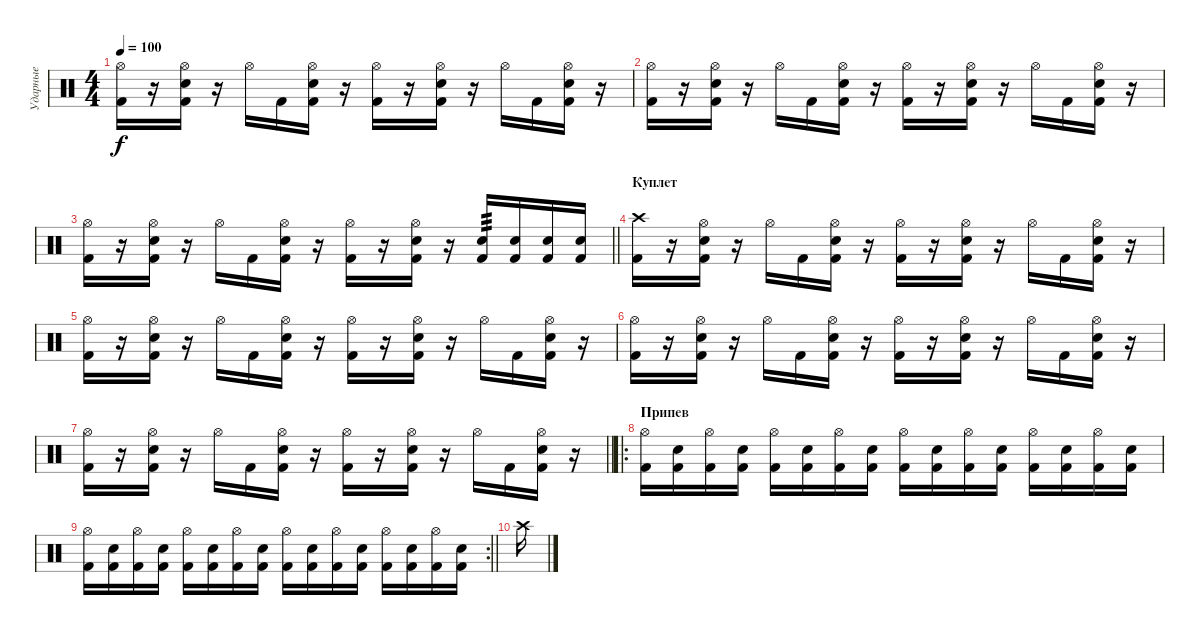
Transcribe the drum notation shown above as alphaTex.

\track ("Ударные" "Ударные") {instrument percussion}
\staff {score}
\articulation defaults
\ts (4 4)
\tempo 100
\clef neutral
\ks c
("Kick (hit) 2" "Hi-Hat (open)").16{dy f} r.16 ("Kick (hit) 2" "Electric Snare (hit)" "Hi-Hat (open)").16 r.16 "Hi-Hat (open)".16 "Kick (hit) 2".16 ("Kick (hit) 2" "Electric Snare (hit)" "Hi-Hat (open)").16 r.16 ("Kick (hit) 2" "Hi-Hat (open)").16 r.16 ("Kick (hit) 2" "Electric Snare (hit)" "Hi-Hat (open)").16 r.16 "Hi-Hat (open)".16 "Kick (hit) 2".16 ("Kick (hit) 2" "Electric Snare (hit)" "Hi-Hat (open)").16 r.16 |
("Kick (hit) 2" "Hi-Hat (open)").16 r.16 ("Kick (hit) 2" "Electric Snare (hit)" "Hi-Hat (open)").16 r.16 "Hi-Hat (open)".16 "Kick (hit) 2".16 ("Kick (hit) 2" "Electric Snare (hit)" "Hi-Hat (open)").16 r.16 ("Kick (hit) 2" "Hi-Hat (open)").16 r.16 ("Kick (hit) 2" "Electric Snare (hit)" "Hi-Hat (open)").16 r.16 "Hi-Hat (open)".16 "Kick (hit) 2".16 ("Kick (hit) 2" "Electric Snare (hit)" "Hi-Hat (open)").16 r.16 |
\barLineRight lightlight
("Kick (hit) 2" "Hi-Hat (open)").16 r.16 ("Kick (hit) 2" "Electric Snare (hit)" "Hi-Hat (open)").16 r.16 "Hi-Hat (open)".16 "Kick (hit) 2".16 ("Kick (hit) 2" "Electric Snare (hit)" "Hi-Hat (open)").16 r.16 ("Kick (hit) 2" "Hi-Hat (open)").16 r.16 ("Kick (hit) 2" "Electric Snare (hit)" "Hi-Hat (open)").16 r.16 ("Kick (hit) 2" "Electric Snare (hit)").16{tp 3} ("Kick (hit) 2" "Electric Snare (hit)").16 ("Kick (hit) 2" "Electric Snare (hit)").16 ("Kick (hit) 2" "Electric Snare (hit)").16 |
\section ("" "Куплет")
("Kick (hit) 2" "Crash high (hit)").16 r.16 ("Kick (hit) 2" "Electric Snare (hit)" "Hi-Hat (open)").16 r.16 "Hi-Hat (open)".16 "Kick (hit) 2".16 ("Kick (hit) 2" "Electric Snare (hit)" "Hi-Hat (open)").16 r.16 ("Kick (hit) 2" "Hi-Hat (open)").16 r.16 ("Kick (hit) 2" "Electric Snare (hit)" "Hi-Hat (open)").16 r.16 "Hi-Hat (open)".16 "Kick (hit) 2".16 ("Kick (hit) 2" "Electric Snare (hit)" "Hi-Hat (open)").16 r.16 |
("Kick (hit) 2" "Hi-Hat (open)").16 r.16 ("Kick (hit) 2" "Electric Snare (hit)" "Hi-Hat (open)").16 r.16 "Hi-Hat (open)".16 "Kick (hit) 2".16 ("Kick (hit) 2" "Electric Snare (hit)" "Hi-Hat (open)").16 r.16 ("Kick (hit) 2" "Hi-Hat (open)").16 r.16 ("Kick (hit) 2" "Electric Snare (hit)" "Hi-Hat (open)").16 r.16 "Hi-Hat (open)".16 "Kick (hit) 2".16 ("Kick (hit) 2" "Electric Snare (hit)" "Hi-Hat (open)").16 r.16 |
("Kick (hit) 2" "Hi-Hat (open)").16 r.16 ("Kick (hit) 2" "Electric Snare (hit)" "Hi-Hat (open)").16 r.16 "Hi-Hat (open)".16 "Kick (hit) 2".16 ("Kick (hit) 2" "Electric Snare (hit)" "Hi-Hat (open)").16 r.16 ("Kick (hit) 2" "Hi-Hat (open)").16 r.16 ("Kick (hit) 2" "Electric Snare (hit)" "Hi-Hat (open)").16 r.16 "Hi-Hat (open)".16 "Kick (hit) 2".16 ("Kick (hit) 2" "Electric Snare (hit)" "Hi-Hat (open)").16 r.16 |
\barLineRight lightlight
("Kick (hit) 2" "Hi-Hat (open)").16 r.16 ("Kick (hit) 2" "Electric Snare (hit)" "Hi-Hat (open)").16 r.16 "Hi-Hat (open)".16 "Kick (hit) 2".16 ("Kick (hit) 2" "Electric Snare (hit)" "Hi-Hat (open)").16 r.16 ("Kick (hit) 2" "Hi-Hat (open)").16 r.16 ("Kick (hit) 2" "Electric Snare (hit)" "Hi-Hat (open)").16 r.16 "Hi-Hat (open)".16 "Kick (hit) 2".16 ("Kick (hit) 2" "Electric Snare (hit)" "Hi-Hat (open)").16 r.16 |
\ro
\section ("" "Припев")
("Kick (hit) 2" "Hi-Hat (open)").16 ("Electric Snare (hit)" "Kick (hit) 2").16 ("Kick (hit) 2" "Hi-Hat (open)").16 ("Electric Snare (hit)" "Kick (hit) 2").16 ("Kick (hit) 2" "Hi-Hat (open)").16 ("Electric Snare (hit)" "Kick (hit) 2").16 ("Kick (hit) 2" "Hi-Hat (open)").16 ("Electric Snare (hit)" "Kick (hit) 2").16 ("Kick (hit) 2" "Hi-Hat (open)").16 ("Electric Snare (hit)" "Kick (hit) 2").16 ("Kick (hit) 2" "Hi-Hat (open)").16 ("Electric Snare (hit)" "Kick (hit) 2").16 ("Kick (hit) 2" "Hi-Hat (open)").16 ("Electric Snare (hit)" "Kick (hit) 2").16 ("Kick (hit) 2" "Hi-Hat (open)").16 ("Electric Snare (hit)" "Kick (hit) 2").16 |
\rc 2
\barLineRight lightlight
("Kick (hit) 2" "Hi-Hat (open)").16 ("Electric Snare (hit)" "Kick (hit) 2").16 ("Kick (hit) 2" "Hi-Hat (open)").16 ("Electric Snare (hit)" "Kick (hit) 2").16 ("Kick (hit) 2" "Hi-Hat (open)").16 ("Electric Snare (hit)" "Kick (hit) 2").16 ("Kick (hit) 2" "Hi-Hat (open)").16 ("Electric Snare (hit)" "Kick (hit) 2").16 ("Kick (hit) 2" "Hi-Hat (open)").16 ("Electric Snare (hit)" "Kick (hit) 2").16 ("Kick (hit) 2" "Hi-Hat (open)").16 ("Electric Snare (hit)" "Kick (hit) 2").16 ("Kick (hit) 2" "Hi-Hat (open)").16 ("Electric Snare (hit)" "Kick (hit) 2").16 ("Kick (hit) 2" "Hi-Hat (open)").16 ("Electric Snare (hit)" "Kick (hit) 2").16 |
"Crash high (hit)".16
